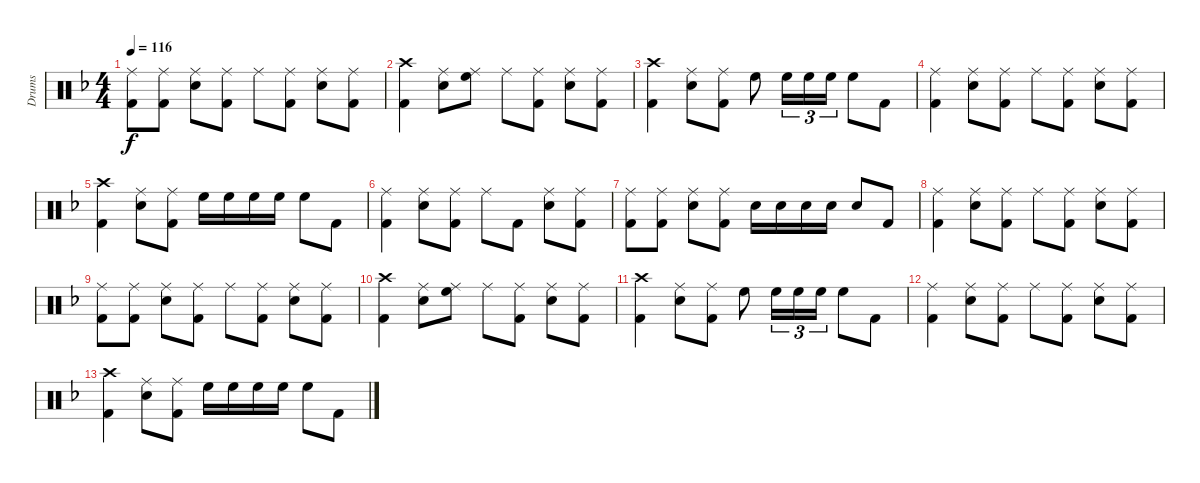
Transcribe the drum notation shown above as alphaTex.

\track ("Drums" "Drums") {instrument percussion}
\staff {score}
\articulation defaults
\ts (4 4)
\tempo 116
\clef neutral
\ks dminor
("Ride (middle)" "Kick (hit) 2").8{dy f} ("Ride (middle)" "Kick (hit) 2").8 ("Ride (middle)" "Electric Snare (hit)").8 ("Ride (middle)" "Kick (hit) 2").8 "Ride (middle)".8 ("Ride (middle)" "Kick (hit) 2").8 ("Ride (middle)" "Electric Snare (hit)").8 ("Ride (middle)" "Kick (hit) 2").8 |
("Crash high (hit)" "Kick (hit) 2").4 ("Ride (middle)" "Electric Snare (hit)").8 ("Ride (middle)" "High Floor Tom (hit)").8 "Ride (middle)".8 ("Ride (middle)" "Kick (hit) 2").8 ("Ride (middle)" "Electric Snare (hit)").8 ("Ride (middle)" "Kick (hit) 2").8 |
("Crash high (hit)" "Kick (hit) 2").4 ("Ride (middle)" "Electric Snare (hit)").8 ("Ride (middle)" "Kick (hit) 2").8 "High Floor Tom (hit)".8 "High Floor Tom (hit)".16{tu (3 2)} "High Floor Tom (hit)".16{tu (3 2)} "High Floor Tom (hit)".16{tu (3 2)} "High Floor Tom (hit)".8 "Kick (hit) 2".8 |
("Ride (middle)" "Kick (hit) 2").4 ("Ride (middle)" "Electric Snare (hit)").8 ("Ride (middle)" "Kick (hit) 2").8 "Ride (middle)".8 ("Ride (middle)" "Kick (hit) 2").8 ("Ride (middle)" "Electric Snare (hit)").8 ("Ride (middle)" "Kick (hit) 2").8 |
("Crash high (hit)" "Kick (hit) 2").4 ("Ride (middle)" "Electric Snare (hit)").8 ("Ride (middle)" "Kick (hit) 2").8 "High Floor Tom (hit)".16 "High Floor Tom (hit)".16 "High Floor Tom (hit)".16 "High Floor Tom (hit)".16 "High Floor Tom (hit)".8 "Kick (hit) 2".8 |
("Ride (middle)" "Kick (hit) 2").4{volume 5} ("Ride (middle)" "Electric Snare (hit)").8 ("Ride (middle)" "Kick (hit) 2").8 "Ride (middle)".8 "Kick (hit) 2".8 ("Ride (middle)" "Electric Snare (hit)").8 ("Ride (middle)" "Kick (hit) 2").8 |
("Ride (middle)" "Kick (hit) 2").8 ("Ride (middle)" "Kick (hit) 2").8 ("Ride (middle)" "Electric Snare (hit)").8 ("Ride (middle)" "Kick (hit) 2").8 "Electric Snare (hit)".16 "Electric Snare (hit)".16 "Electric Snare (hit)".16 "Electric Snare (hit)".16 "Electric Snare (hit)".8 "Kick (hit) 2".8 |
("Ride (middle)" "Kick (hit) 2").4 ("Ride (middle)" "Electric Snare (hit)").8 ("Ride (middle)" "Kick (hit) 2").8 "Ride (middle)".8 ("Ride (middle)" "Kick (hit) 2").8 ("Ride (middle)" "Electric Snare (hit)").8 ("Ride (middle)" "Kick (hit) 2").8 |
("Ride (middle)" "Kick (hit) 2").8 ("Ride (middle)" "Kick (hit) 2").8 ("Ride (middle)" "Electric Snare (hit)").8 ("Ride (middle)" "Kick (hit) 2").8 "Ride (middle)".8 ("Ride (middle)" "Kick (hit) 2").8 ("Ride (middle)" "Electric Snare (hit)").8 ("Ride (middle)" "Kick (hit) 2").8 |
("Crash high (hit)" "Kick (hit) 2").4{volume 0} ("Ride (middle)" "Electric Snare (hit)").8 ("Ride (middle)" "High Floor Tom (hit)").8 "Ride (middle)".8 ("Ride (middle)" "Kick (hit) 2").8 ("Ride (middle)" "Electric Snare (hit)").8 ("Ride (middle)" "Kick (hit) 2").8 |
("Crash high (hit)" "Kick (hit) 2").4 ("Ride (middle)" "Electric Snare (hit)").8 ("Ride (middle)" "Kick (hit) 2").8 "High Floor Tom (hit)".8 "High Floor Tom (hit)".16{tu (3 2)} "High Floor Tom (hit)".16{tu (3 2)} "High Floor Tom (hit)".16{tu (3 2)} "High Floor Tom (hit)".8 "Kick (hit) 2".8 |
("Ride (middle)" "Kick (hit) 2").4 ("Ride (middle)" "Electric Snare (hit)").8 ("Ride (middle)" "Kick (hit) 2").8 "Ride (middle)".8 ("Ride (middle)" "Kick (hit) 2").8 ("Ride (middle)" "Electric Snare (hit)").8 ("Ride (middle)" "Kick (hit) 2").8 |
("Crash high (hit)" "Kick (hit) 2").4 ("Ride (middle)" "Electric Snare (hit)").8 ("Ride (middle)" "Kick (hit) 2").8 "High Floor Tom (hit)".16 "High Floor Tom (hit)".16 "High Floor Tom (hit)".16 "High Floor Tom (hit)".16 "High Floor Tom (hit)".8 "Kick (hit) 2".8
